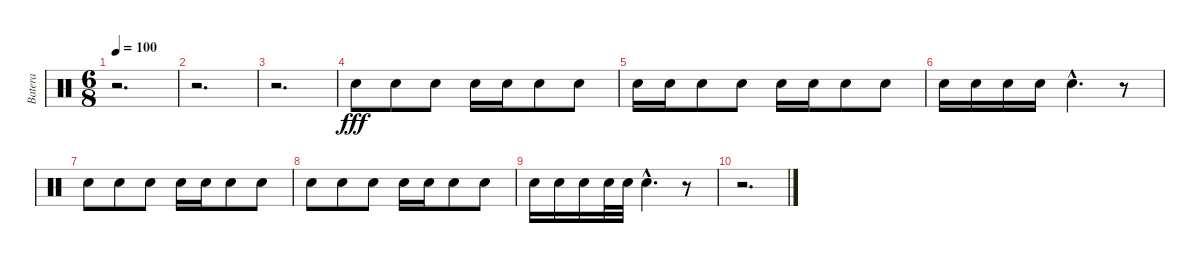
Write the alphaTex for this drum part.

\track ("Batera" "Batera") {instrument percussion}
\staff {score}
\articulation defaults
\ts (6 8)
\tempo 100
\clef neutral
\ks c
r.2{d dy fff} |
r.2{d} |
r.2{d} |
"Snare (hit) 2".8 "Snare (hit) 2".8 "Snare (hit) 2".8 "Snare (hit) 2".16 "Snare (hit) 2".16 "Snare (hit) 2".8 "Snare (hit) 2".8 |
"Snare (hit) 2".16 "Snare (hit) 2".16 "Snare (hit) 2".8 "Snare (hit) 2".8 "Snare (hit) 2".16 "Snare (hit) 2".16 "Snare (hit) 2".8 "Snare (hit) 2".8 |
"Snare (hit) 2".16 "Snare (hit) 2".16 "Snare (hit) 2".16 "Snare (hit) 2".16 "Snare (hit) 2"{hac}.4{d} r.8 |
"Snare (hit) 2".8 "Snare (hit) 2".8 "Snare (hit) 2".8 "Snare (hit) 2".16 "Snare (hit) 2".16 "Snare (hit) 2".8 "Snare (hit) 2".8 |
"Snare (hit) 2".8 "Snare (hit) 2".8 "Snare (hit) 2".8 "Snare (hit) 2".16 "Snare (hit) 2".16 "Snare (hit) 2".8 "Snare (hit) 2".8 |
"Snare (hit) 2".16 "Snare (hit) 2".16 "Snare (hit) 2".16 "Snare (hit) 2".32 "Snare (hit) 2".32 "Snare (hit) 2"{hac}.4{d} r.8 |
r.2{d}
